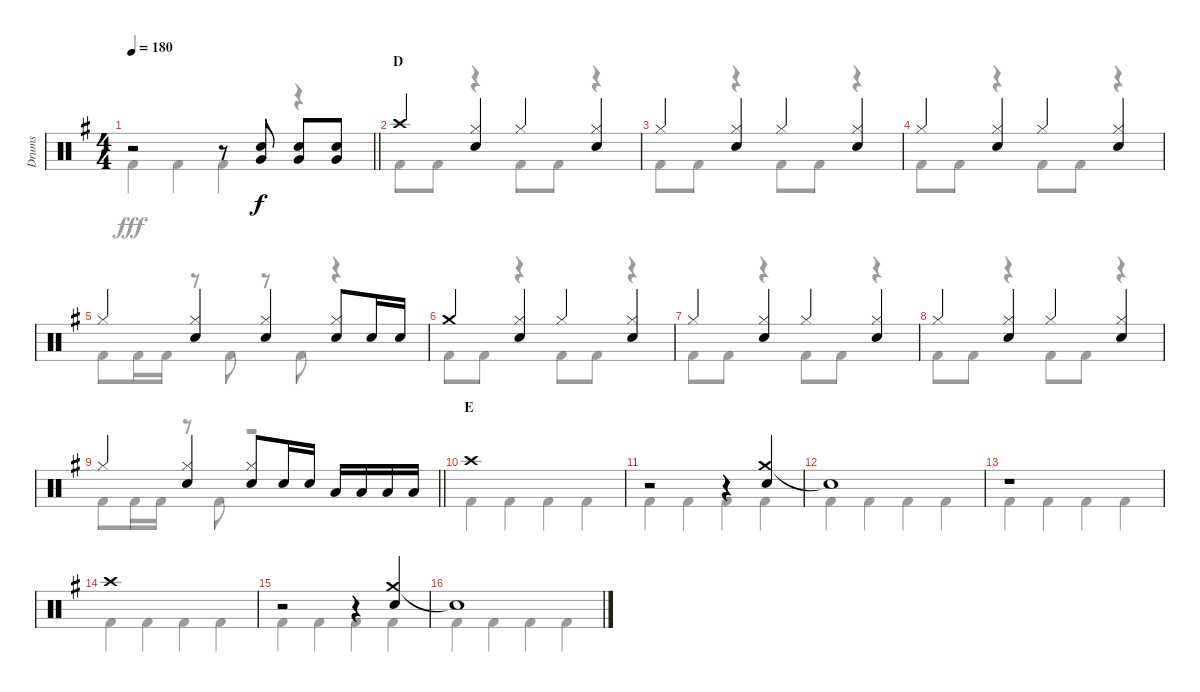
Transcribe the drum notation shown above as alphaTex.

\track ("Drums" "Drums") {instrument percussion}
\staff {score}
\articulation defaults
\voice
\ts (4 4)
\tempo 180
\clef neutral
\barLineRight lightlight
\ks g
r.2{dy f} r.8 ("Snare (hit) 2" "Very Low Tom (hit)").8 ("Snare (hit) 2" "Very Low Tom (hit)").8 ("Snare (hit) 2" "Very Low Tom (hit)").8 |
\section ("" "D")
"Crash high (hit)".4 ("Hi-Hat (closed)" "Snare (hit) 2").4 "Hi-Hat (closed)".4 ("Hi-Hat (closed)" "Snare (hit) 2").4 |
"Hi-Hat (closed)".4 ("Hi-Hat (closed)" "Snare (hit) 2").4 "Hi-Hat (closed)".4 ("Hi-Hat (closed)" "Snare (hit) 2").4 |
"Hi-Hat (closed)".4 ("Hi-Hat (closed)" "Snare (hit) 2").4 "Hi-Hat (closed)".4 ("Hi-Hat (closed)" "Snare (hit) 2").4 |
"Hi-Hat (closed)".4 ("Hi-Hat (closed)" "Snare (hit) 2").4 ("Hi-Hat (closed)" "Snare (hit) 2").4 ("Hi-Hat (closed)" "Snare (hit) 2").8 "Snare (hit) 2".16 "Snare (hit) 2".16 |
"Crash medium (hit)".4 ("Hi-Hat (closed)" "Snare (hit) 2").4 "Hi-Hat (closed)".4 ("Hi-Hat (closed)" "Snare (hit) 2").4 |
"Hi-Hat (closed)".4 ("Hi-Hat (closed)" "Snare (hit) 2").4 "Hi-Hat (closed)".4 ("Hi-Hat (closed)" "Snare (hit) 2").4 |
"Hi-Hat (closed)".4 ("Hi-Hat (closed)" "Snare (hit) 2").4 "Hi-Hat (closed)".4 ("Hi-Hat (closed)" "Snare (hit) 2").4 |
\barLineRight lightlight "Hi-Hat (closed)".4
("Hi-Hat (closed)" "Snare (hit) 2").4 ("Hi-Hat (closed)" "Snare (hit) 2").8 "Snare (hit) 2".16 "Snare (hit) 2".16 "Low Tom (hit)".16 "Low Tom (hit)".16 "Low Tom (hit)".16 "Low Tom (hit)".16 |
\section ("" "E")
"Crash high (hit)".1 |
r.2 r.4 ("Crash medium (hit)" "Snare (hit) 2").4 |
"Snare (hit)"{t}.1 |
r.1 |
"Crash high (hit)".1 |
r.2 r.4 ("Crash medium (hit)" "Snare (hit) 2").4 |
"Snare (hit)"{t}.1
\voice
\clef neutral
\ottava regular
\simile none
\barLineRight lightlight
\ks g "Kick (hit) 2".4{dy fff} "Kick (hit) 2".4 "Kick (hit) 2".4
r.4 |
"Kick (hit) 2".8 "Kick (hit) 2".8 r.4 "Kick (hit) 2".8 "Kick (hit) 2".8 r.4 |
"Kick (hit) 2".8 "Kick (hit) 2".8 r.4 "Kick (hit) 2".8 "Kick (hit) 2".8 r.4 |
"Kick (hit) 2".8 "Kick (hit) 2".8 r.4 "Kick (hit) 2".8 "Kick (hit) 2".8 r.4 |
"Kick (hit) 2".8 "Kick (hit) 2".16 "Kick (hit) 2".16 r.8 "Kick (hit) 2".8 r.8 "Kick (hit) 2".8 r.4 |
"Kick (hit) 2".8 "Kick (hit) 2".8 r.4 "Kick (hit) 2".8 "Kick (hit) 2".8 r.4 |
"Kick (hit) 2".8 "Kick (hit) 2".8 r.4 "Kick (hit) 2".8 "Kick (hit) 2".8 r.4 |
"Kick (hit) 2".8 "Kick (hit) 2".8 r.4 "Kick (hit) 2".8 "Kick (hit) 2".8 r.4 |
\barLineRight lightlight "Kick (hit) 2".8 "Kick (hit) 2".16 "Kick (hit) 2".16
r.8 "Kick (hit) 2".8 r.2 |
"Kick (hit) 2".4 "Kick (hit) 2".4 "Kick (hit) 2".4 "Kick (hit) 2".4 |
"Kick (hit) 2".4 "Kick (hit) 2".4 "Kick (hit) 2".4 "Kick (hit) 2".4 |
"Kick (hit) 2".4 "Kick (hit) 2".4 "Kick (hit) 2".4 "Kick (hit) 2".4 |
"Kick (hit) 2".4 "Kick (hit) 2".4 "Kick (hit) 2".4 "Kick (hit) 2".4 |
"Kick (hit) 2".4 "Kick (hit) 2".4 "Kick (hit) 2".4 "Kick (hit) 2".4 |
"Kick (hit) 2".4 "Kick (hit) 2".4 "Kick (hit) 2".4 "Kick (hit) 2".4 |
"Kick (hit) 2".4 "Kick (hit) 2".4 "Kick (hit) 2".4 "Kick (hit) 2".4
